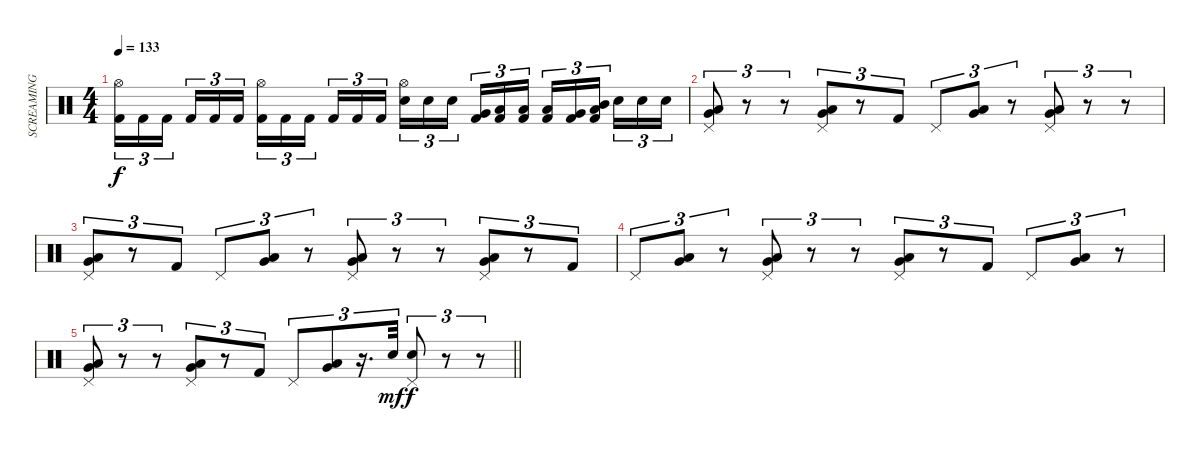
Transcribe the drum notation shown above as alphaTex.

\track ("SCREAMING TOASTER OVEN" "SCREAMING ") {instrument percussion}
\staff {score}
\articulation defaults
\ts (4 4)
\tempo 133
\clef neutral
\ks c
("Hi-Hat (open)" "Kick (hit) 2").16{tu (3 2) dy f} "Kick (hit) 2".16{tu (3 2)} "Kick (hit) 2".16{tu (3 2) beam splitsecondary} "Kick (hit) 2".16{tu (3 2)} "Kick (hit) 2".16{tu (3 2)} "Kick (hit) 2".16{tu (3 2)} ("Hi-Hat (open)" "Kick (hit) 2").16{tu (3 2)} "Kick (hit) 2".16{tu (3 2)} "Kick (hit) 2".16{tu (3 2) beam splitsecondary} "Kick (hit) 2".16{tu (3 2)} "Kick (hit) 2".16{tu (3 2)} "Kick (hit) 2".16{tu (3 2)} ("Hi-Hat (open)" "Electric Snare (hit)").16{tu (3 2)} "Electric Snare (hit)".16{tu (3 2)} "Electric Snare (hit)".16{tu (3 2) beam splitsecondary} ("Very Low Tom (hit)" "Kick (hit) 2").16{tu (3 2)} ("Low Floor Tom (hit)" "Kick (hit) 2").16{tu (3 2)} ("Low Floor Tom (hit)" "Kick (hit) 2").16{tu (3 2)} ("Low Tom (hit)" "Kick (hit) 2").16{tu (3 2)} ("Very Low Tom (hit)" "Kick (hit) 2").16{tu (3 2)} ("Low Floor Tom (hit)" "Mid Tom (hit)" "Kick (hit) 2").16{tu (3 2) beam splitsecondary} "Electric Snare (hit)".16{tu (3 2)} "Electric Snare (hit)".16{tu (3 2)} "Electric Snare (hit)".16{tu (3 2)} |
("Pedal Hi-Hat (hit)" "Very Low Tom (hit)" "Low Floor Tom (hit)").8{tu (3 2)} r.8{tu (3 2)} r.8{tu (3 2)} ("Pedal Hi-Hat (hit)" "Very Low Tom (hit)" "Low Floor Tom (hit)").8{tu (3 2)} r.8{tu (3 2)} "Kick (hit) 2".8{tu (3 2)} "Pedal Hi-Hat (hit)".8{tu (3 2)} ("Very Low Tom (hit)" "Low Floor Tom (hit)").8{tu (3 2)} r.8{tu (3 2)} ("Pedal Hi-Hat (hit)" "Very Low Tom (hit)" "Low Floor Tom (hit)").8{tu (3 2)} r.8{tu (3 2)} r.8{tu (3 2)} |
("Pedal Hi-Hat (hit)" "Very Low Tom (hit)" "Low Floor Tom (hit)").8{tu (3 2)} r.8{tu (3 2)} "Kick (hit) 2".8{tu (3 2)} "Pedal Hi-Hat (hit)".8{tu (3 2)} ("Very Low Tom (hit)" "Low Floor Tom (hit)").8{tu (3 2)} r.8{tu (3 2)} ("Pedal Hi-Hat (hit)" "Very Low Tom (hit)" "Low Floor Tom (hit)").8{tu (3 2)} r.8{tu (3 2)} r.8{tu (3 2)} ("Pedal Hi-Hat (hit)" "Very Low Tom (hit)" "Low Floor Tom (hit)").8{tu (3 2)} r.8{tu (3 2)} "Kick (hit) 2".8{tu (3 2)} |
"Pedal Hi-Hat (hit)".8{tu (3 2)} ("Very Low Tom (hit)" "Low Floor Tom (hit)").8{tu (3 2)} r.8{tu (3 2)} ("Pedal Hi-Hat (hit)" "Very Low Tom (hit)" "Low Floor Tom (hit)").8{tu (3 2)} r.8{tu (3 2)} r.8{tu (3 2)} ("Pedal Hi-Hat (hit)" "Very Low Tom (hit)" "Low Floor Tom (hit)").8{tu (3 2)} r.8{tu (3 2)} "Kick (hit) 2".8{tu (3 2)} "Pedal Hi-Hat (hit)".8{tu (3 2)} ("Very Low Tom (hit)" "Low Floor Tom (hit)").8{tu (3 2)} r.8{tu (3 2)} |
\barLineRight lightlight
("Pedal Hi-Hat (hit)" "Very Low Tom (hit)" "Low Floor Tom (hit)").8{tu (3 2)} r.8{tu (3 2)} r.8{tu (3 2)} ("Pedal Hi-Hat (hit)" "Very Low Tom (hit)" "Low Floor Tom (hit)").8{tu (3 2)} r.8{tu (3 2)} "Kick (hit) 2".8{tu (3 2)} "Pedal Hi-Hat (hit)".8{tu (3 2)} ("Very Low Tom (hit)" "Low Floor Tom (hit)").8{tu (3 2)} r.16{d tu (3 2)} "Electric Snare (hit)".32{tu (3 2) dy mf} ("Pedal Hi-Hat (hit)" "Electric Snare (hit)").8{tu (3 2) dy f} r.8{tu (3 2)} r.8{tu (3 2)}
